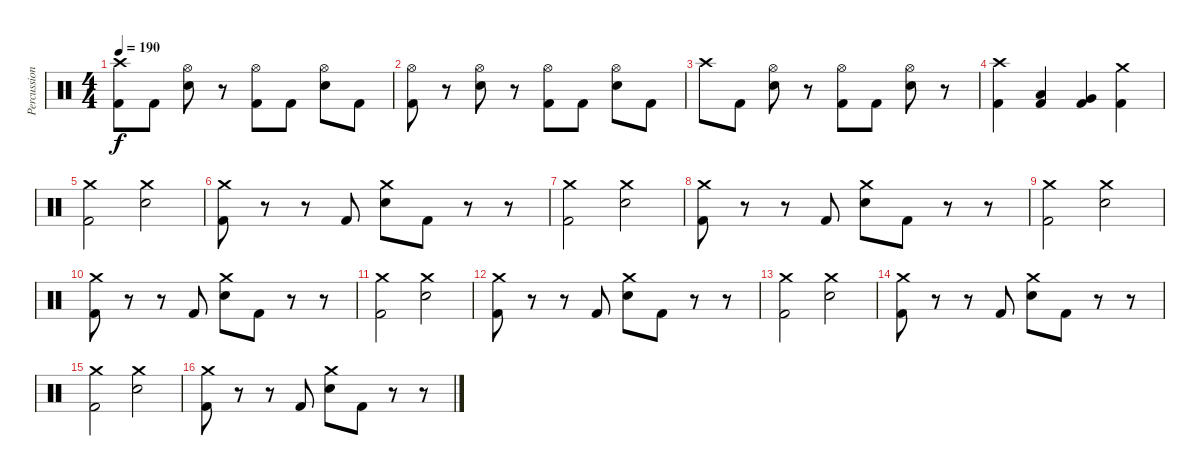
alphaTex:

\track ("Percussion" "Percussion") {instrument percussion}
\staff {score}
\articulation defaults
\ts (4 4)
\tempo 190
\clef neutral
\ks c
("Crash high (hit)" "Kick (hit) 2").8{dy f} "Kick (hit) 2".8 ("Hi-Hat (open)" "Electric Snare (hit)").8 r.8 ("Hi-Hat (open)" "Kick (hit) 2").8 "Kick (hit) 2".8 ("Hi-Hat (open)" "Electric Snare (hit)").8 "Kick (hit) 2".8 |
("Hi-Hat (open)" "Kick (hit) 2").8 r.8 ("Hi-Hat (open)" "Electric Snare (hit)").8 r.8 ("Hi-Hat (open)" "Kick (hit) 2").8 "Kick (hit) 2".8 ("Hi-Hat (open)" "Electric Snare (hit)").8 "Kick (hit) 2".8 |
"Crash high (hit)".8 "Kick (hit) 2".8 ("Hi-Hat (open)" "Electric Snare (hit)").8 r.8 ("Hi-Hat (open)" "Kick (hit) 2").8 "Kick (hit) 2".8 ("Hi-Hat (open)" "Electric Snare (hit)").8 r.8 |
("Crash high (hit)" "Kick (hit) 2").4 ("Low Tom (hit)" "Kick (hit) 2").4 ("Very Low Tom (hit)" "Kick (hit) 2").4 ("Crash medium (hit)" "Kick (hit) 2").4 |
("Crash medium (hit)" "Kick (hit) 2").2 ("Crash medium (hit)" "Electric Snare (hit)").2 |
("Crash medium (hit)" "Kick (hit) 2").8 r.8 r.8 "Kick (hit) 2".8 ("Crash medium (hit)" "Electric Snare (hit)").8 "Kick (hit) 2".8 r.8 r.8 |
("Crash medium (hit)" "Kick (hit) 2").2 ("Crash medium (hit)" "Electric Snare (hit)").2 |
("Crash medium (hit)" "Kick (hit) 2").8 r.8 r.8 "Kick (hit) 2".8 ("Crash medium (hit)" "Electric Snare (hit)").8 "Kick (hit) 2".8 r.8 r.8 |
("Crash medium (hit)" "Kick (hit) 2").2 ("Crash medium (hit)" "Electric Snare (hit)").2 |
("Crash medium (hit)" "Kick (hit) 2").8 r.8 r.8 "Kick (hit) 2".8 ("Crash medium (hit)" "Electric Snare (hit)").8 "Kick (hit) 2".8 r.8 r.8 |
("Crash medium (hit)" "Kick (hit) 2").2 ("Crash medium (hit)" "Electric Snare (hit)").2 |
("Crash medium (hit)" "Kick (hit) 2").8 r.8 r.8 "Kick (hit) 2".8 ("Crash medium (hit)" "Electric Snare (hit)").8 "Kick (hit) 2".8 r.8 r.8 |
("Crash medium (hit)" "Kick (hit) 2").2 ("Crash medium (hit)" "Electric Snare (hit)").2 |
("Crash medium (hit)" "Kick (hit) 2").8 r.8 r.8 "Kick (hit) 2".8 ("Crash medium (hit)" "Electric Snare (hit)").8 "Kick (hit) 2".8 r.8 r.8 |
("Crash medium (hit)" "Kick (hit) 2").2 ("Crash medium (hit)" "Electric Snare (hit)").2 |
("Crash medium (hit)" "Kick (hit) 2").8 r.8 r.8 "Kick (hit) 2".8 ("Crash medium (hit)" "Electric Snare (hit)").8 "Kick (hit) 2".8 r.8 r.8
